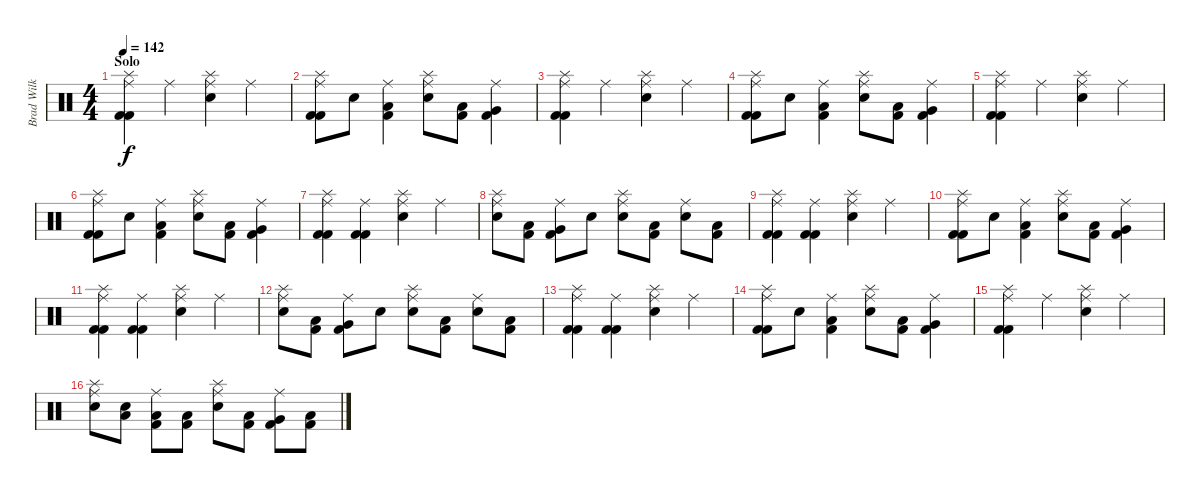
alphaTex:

\track ("Brad Wilk" "Brad Wilk") {instrument percussion}
\staff {score}
\articulation defaults
\ts (4 4)
\section ("" "Solo")
\tempo 142
\clef neutral
\ks c
("Splash (hit)" "Ride (middle)" "Kick (hit) 2" "Kick (hit) 2").4{dy f} "Ride (middle)".4 ("Splash (hit)" "Ride (middle)" "Electric Snare (hit)").4 "Ride (middle)".4 |
("Splash (hit)" "Ride (middle)" "Kick (hit) 2" "Kick (hit) 2").8 "Electric Snare (hit)".8 ("Ride (middle)" "Low Tom (hit)" "Kick (hit) 2").4 ("Splash (hit)" "Ride (middle)" "Electric Snare (hit)").8 ("Low Tom (hit)" "Kick (hit) 2").8 ("Ride (middle)" "Very Low Tom (hit)" "Kick (hit) 2").4 |
("Splash (hit)" "Ride (middle)" "Kick (hit) 2" "Kick (hit) 2").4 "Ride (middle)".4 ("Splash (hit)" "Ride (middle)" "Electric Snare (hit)").4 "Ride (middle)".4 |
("Splash (hit)" "Ride (middle)" "Kick (hit) 2" "Kick (hit) 2").8 "Electric Snare (hit)".8 ("Ride (middle)" "Low Tom (hit)" "Kick (hit) 2").4 ("Splash (hit)" "Ride (middle)" "Electric Snare (hit)").8 ("Low Tom (hit)" "Kick (hit) 2").8 ("Ride (middle)" "Very Low Tom (hit)" "Kick (hit) 2").4 |
("Splash (hit)" "Ride (middle)" "Kick (hit) 2" "Kick (hit) 2").4 "Ride (middle)".4 ("Splash (hit)" "Ride (middle)" "Electric Snare (hit)").4 "Ride (middle)".4 |
("Splash (hit)" "Ride (middle)" "Kick (hit) 2" "Kick (hit) 2").8 "Electric Snare (hit)".8 ("Ride (middle)" "Low Tom (hit)" "Kick (hit) 2").4 ("Splash (hit)" "Ride (middle)" "Electric Snare (hit)").8 ("Low Tom (hit)" "Kick (hit) 2").8 ("Ride (middle)" "Very Low Tom (hit)" "Kick (hit) 2").4 |
("Splash (hit)" "Ride (middle)" "Kick (hit) 2" "Kick (hit) 2").4 ("Ride (middle)" "Kick (hit) 2" "Kick (hit) 2").4 ("Splash (hit)" "Ride (middle)" "Electric Snare (hit)").4 "Ride (middle)".4 |
("Splash (hit)" "Ride (middle)" "Electric Snare (hit)").8 ("Low Tom (hit)" "Kick (hit) 2").8 ("Ride (middle)" "Very Low Tom (hit)" "Kick (hit) 2").8 "Electric Snare (hit)".8 ("Splash (hit)" "Ride (middle)" "Electric Snare (hit)").8 ("Low Tom (hit)" "Kick (hit) 2").8 ("Ride (middle)" "Electric Snare (hit)").8 ("Low Tom (hit)" "Kick (hit) 2").8 |
("Splash (hit)" "Ride (middle)" "Kick (hit) 2" "Kick (hit) 2").4 ("Ride (middle)" "Kick (hit) 2" "Kick (hit) 2").4 ("Splash (hit)" "Ride (middle)" "Electric Snare (hit)").4 "Ride (middle)".4 |
("Splash (hit)" "Ride (middle)" "Kick (hit) 2" "Kick (hit) 2").8 "Electric Snare (hit)".8 ("Ride (middle)" "Low Tom (hit)" "Kick (hit) 2").4 ("Splash (hit)" "Ride (middle)" "Electric Snare (hit)").8 ("Low Tom (hit)" "Kick (hit) 2").8 ("Ride (middle)" "Very Low Tom (hit)" "Kick (hit) 2").4 |
("Splash (hit)" "Ride (middle)" "Kick (hit) 2" "Kick (hit) 2").4 ("Ride (middle)" "Kick (hit) 2" "Kick (hit) 2").4 ("Splash (hit)" "Ride (middle)" "Electric Snare (hit)").4 "Ride (middle)".4 |
("Splash (hit)" "Ride (middle)" "Electric Snare (hit)").8 ("Low Tom (hit)" "Kick (hit) 2").8 ("Ride (middle)" "Very Low Tom (hit)" "Kick (hit) 2").8 "Electric Snare (hit)".8 ("Splash (hit)" "Ride (middle)" "Electric Snare (hit)").8 ("Low Tom (hit)" "Kick (hit) 2").8 ("Ride (middle)" "Electric Snare (hit)").8 ("Low Tom (hit)" "Kick (hit) 2").8 |
("Splash (hit)" "Ride (middle)" "Kick (hit) 2" "Kick (hit) 2").4 ("Ride (middle)" "Kick (hit) 2" "Kick (hit) 2").4 ("Splash (hit)" "Ride (middle)" "Electric Snare (hit)").4 "Ride (middle)".4 |
("Splash (hit)" "Ride (middle)" "Kick (hit) 2" "Kick (hit) 2").8 "Electric Snare (hit)".8 ("Ride (middle)" "Low Tom (hit)" "Kick (hit) 2").4 ("Splash (hit)" "Ride (middle)" "Electric Snare (hit)").8 ("Low Tom (hit)" "Kick (hit) 2").8 ("Ride (middle)" "Very Low Tom (hit)" "Kick (hit) 2").4 |
("Splash (hit)" "Ride (middle)" "Kick (hit) 2" "Kick (hit) 2").4 "Ride (middle)".4 ("Splash (hit)" "Ride (middle)" "Electric Snare (hit)").4 "Ride (middle)".4 |
("Splash (hit)" "Ride (middle)" "Electric Snare (hit)").8 ("Electric Snare (hit)" "Low Tom (hit)").8 ("Ride (middle)" "Low Tom (hit)" "Kick (hit) 2").8 ("Low Tom (hit)" "Kick (hit) 2").8 ("Splash (hit)" "Ride (middle)" "Electric Snare (hit)").8 ("Low Tom (hit)" "Kick (hit) 2").8 ("Ride (middle)" "Very Low Tom (hit)" "Kick (hit) 2").8 ("Low Tom (hit)" "Kick (hit) 2").8
